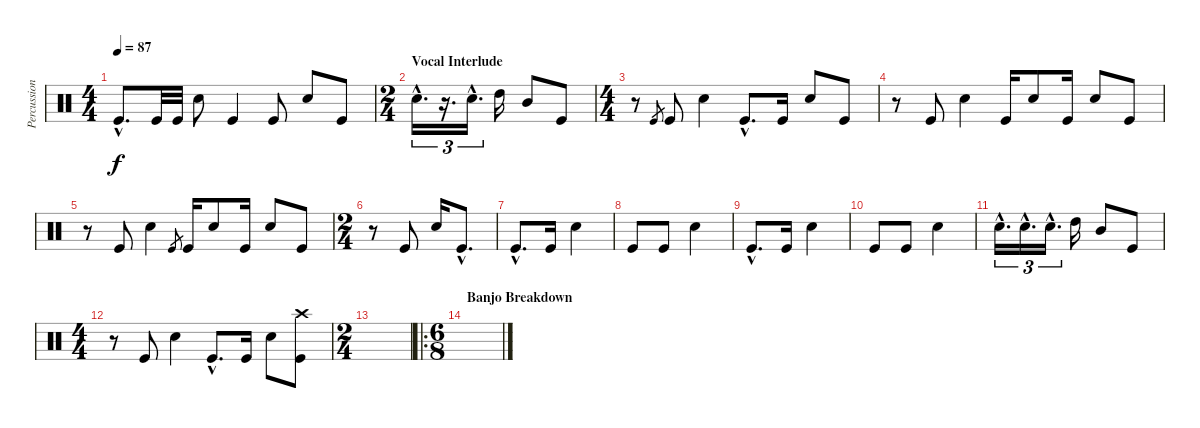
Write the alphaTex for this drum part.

\track ("Percussion" "Percussion") {instrument percussion}
\staff {score}
\articulation defaults
\ts (4 4)
\tempo 87
\clef neutral
\ks c "Kick (hit)"{hac}.8{d dy f} "Kick (hit)".32 "Kick (hit)".32 "Electric Snare (hit)".8 "Kick (hit)".4 "Kick (hit)".8 "Electric Snare (hit)".8 "Kick (hit)".8
|
\ts (2 4)
\section ("" "Vocal Interlude")
"Electric Snare (hit)"{hac}.16{d tu (3 2)} r.16{d tu (3 2)} "Electric Snare (hit)"{hac}.16{d tu (3 2)} "High Tom (hit)".16 "Mid Tom (hit)".8 "Kick (hit)".8 |
\ts (4 4)
r.8 "Kick (hit)".8{gr} "Kick (hit)".8 "Electric Snare (hit)".4 "Kick (hit)"{hac}.8{d} "Kick (hit)".16 "Electric Snare (hit)".8 "Kick (hit)".8 |
r.8 "Kick (hit)".8 "Electric Snare (hit)".4 "Kick (hit)".16 "Electric Snare (hit)".8 "Kick (hit)".16 "Electric Snare (hit)".8 "Kick (hit)".8 |
r.8 "Kick (hit)".8 "Electric Snare (hit)".4 "Kick (hit)".8{gr} "Kick (hit)".16 "Electric Snare (hit)".8 "Kick (hit)".16 "Electric Snare (hit)".8 "Kick (hit)".8 |
\ts (2 4)
r.8 "Kick (hit)".8 "Electric Snare (hit)".16 "Kick (hit)"{hac}.8{d} |
"Kick (hit)"{hac}.8{d} "Kick (hit)".16 "Electric Snare (hit)".4 |
"Kick (hit)".8 "Kick (hit)".8 "Electric Snare (hit)".4 |
"Kick (hit)"{hac}.8{d} "Kick (hit)".16 "Electric Snare (hit)".4 |
"Kick (hit)".8 "Kick (hit)".8 "Electric Snare (hit)".4 |
"Electric Snare (hit)"{hac}.16{d tu (3 2)} "Electric Snare (hit)"{hac}.16{d tu (3 2)} "Electric Snare (hit)"{hac}.16{d tu (3 2)} "High Tom (hit)".16 "Mid Tom (hit)".8 "Kick (hit)".8 |
\ts (4 4)
r.8 "Kick (hit)".8 "Electric Snare (hit)".4 "Kick (hit)"{hac}.8{d} "Kick (hit)".16 "Electric Snare (hit)".8 ("Crash high (hit)" "Kick (hit)").8 |
\ts (2 4)
|
\ro
\ts (6 8)
\section ("" "Banjo Breakdown")
